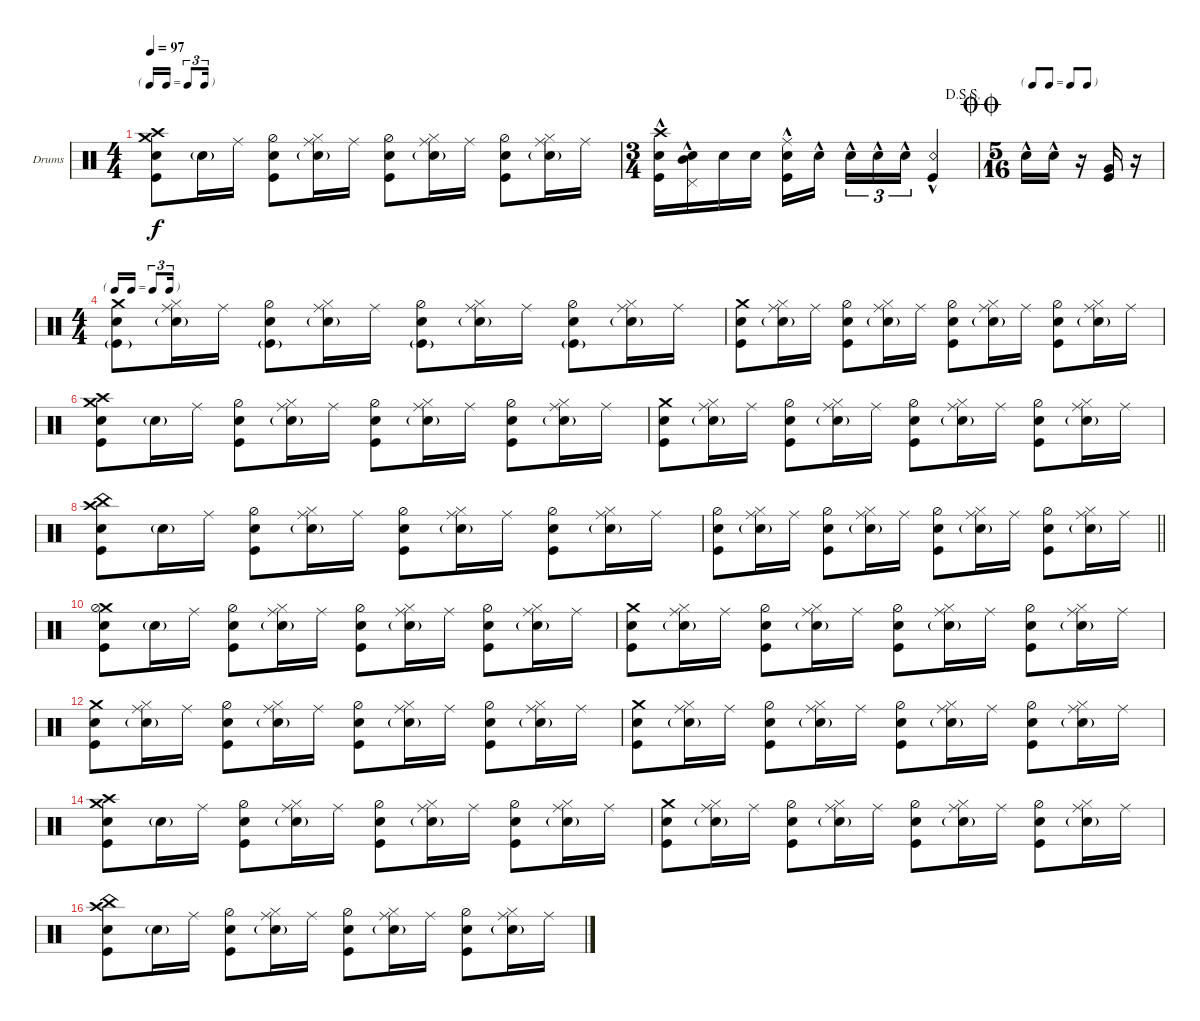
\defaultSystemsLayout 4
\bracketExtendMode nobrackets
\firstSystemTrackNameOrientation horizontal
\otherSystemsTrackNameOrientation horizontal
\defaultBarNumberDisplay FirstOfSystem
\track ("Drums" "Drums") {instrument percussion}
\staff {score}
\articulation defaults
\ts (4 4)
\tf triplet16th
\tempo 97
\clef neutral
\ks c
("Snare (hit) 2" "Kick (hit)" "Crash medium (hit)" "Crash high (hit)").8{dy f} "Snare (hit) 2"{g}.16 "Ride (middle)".16 ("Snare (hit) 2" "Kick (hit)" "Hi-Hat (half)").8 ("Hi-Hat (closed)" "Snare (hit) 2"{g} "Ride (middle)").16 "Ride (middle)".16 ("Kick (hit)" "Snare (hit) 2" "Hi-Hat (half)").8 ("Hi-Hat (closed)" "Snare (hit) 2"{g} "Ride (middle)").16 "Ride (middle)".16 ("Snare (hit) 2" "Kick (hit)" "Hi-Hat (half)").8 ("Hi-Hat (closed)" "Snare (hit) 2"{g} "Ride (middle)").16 "Ride (middle)".16 |
\ts (3 4)
\jump dalsegnosegno
("Snare (hit) 2" "Kick (hit)" "Crash high (hit)"{hac}).16 ("Snare (hit) 2"{hac} "Pedal Hi-Hat (hit)" "Mid Tom (hit)").16 "Snare (hit) 2".16 "Snare (hit) 2".16 ("Kick (hit)"{hac} "Snare (hit) 2"{hac} "Ride (middle)").16{beam merge} "Snare (hit) 2"{hac}.16{beam split} "Snare (hit) 2"{hac}.16{tu (3 2)} "Snare (hit) 2"{hac}.16{tu (3 2)} "Snare (hit) 2"{hac}.16{tu (3 2)} ("Snare (rim shot)"{hac} "Kick (hit)"{hac}).4 |
\ts (5 16)
\tf none
\jump doublecoda "Snare (hit) 2"{hac}.16 "Snare (hit) 2"{hac}.16{beam split}
r.16{beam split} ("Kick (hit)" "Very Low Tom (hit)").16{beam merge} r.16 |
\ts (4 4)
\tf triplet16th
("Snare (hit) 2" "Kick (hit)"{g} "Crash medium (hit)").8 ("Snare (hit) 2"{g} "Ride (middle)" "Hi-Hat (closed)").16 "Ride (middle)".16 ("Snare (hit) 2" "Kick (hit)"{g} "Hi-Hat (half)").8 ("Hi-Hat (closed)" "Ride (middle)" "Snare (hit) 2"{g}).16 "Ride (middle)".16 ("Kick (hit)"{g} "Snare (hit) 2" "Hi-Hat (half)").8 ("Hi-Hat (closed)" "Ride (middle)" "Snare (hit) 2"{g}).16 "Ride (middle)".16 ("Snare (hit) 2" "Kick (hit)"{g} "Hi-Hat (half)").8 ("Hi-Hat (closed)" "Ride (middle)" "Snare (hit) 2"{g}).16 "Ride (middle)".16 |
("Snare (hit) 2" "Kick (hit)" "Crash medium (hit)").8 ("Snare (hit) 2"{g} "Hi-Hat (closed)" "Ride (middle)").16 "Ride (middle)".16 ("Snare (hit) 2" "Kick (hit)" "Hi-Hat (half)").8 ("Hi-Hat (closed)" "Snare (hit) 2"{g} "Ride (middle)").16 "Ride (middle)".16 ("Kick (hit)" "Snare (hit) 2" "Hi-Hat (half)").8 ("Hi-Hat (closed)" "Snare (hit) 2"{g} "Ride (middle)").16 "Ride (middle)".16 ("Snare (hit) 2" "Kick (hit)" "Hi-Hat (half)").8 ("Hi-Hat (closed)" "Snare (hit) 2"{g} "Ride (middle)").16 "Ride (middle)".16 |
("Snare (hit) 2" "Kick (hit)" "Crash medium (hit)" "Crash high (hit)").8 "Snare (hit) 2"{g}.16 "Ride (middle)".16 ("Snare (hit) 2" "Kick (hit)" "Hi-Hat (half)").8 ("Hi-Hat (closed)" "Snare (hit) 2"{g} "Ride (middle)").16 "Ride (middle)".16 ("Kick (hit)" "Snare (hit) 2" "Hi-Hat (half)").8 ("Hi-Hat (closed)" "Snare (hit) 2"{g} "Ride (middle)").16 "Ride (middle)".16 ("Snare (hit) 2" "Kick (hit)" "Hi-Hat (half)").8 ("Hi-Hat (closed)" "Snare (hit) 2"{g} "Ride (middle)").16 "Ride (middle)".16 |
("Snare (hit) 2" "Kick (hit)" "Crash medium (hit)").8 ("Hi-Hat (closed)" "Ride (middle)" "Snare (hit) 2"{g}).16 "Ride (middle)".16 ("Snare (hit) 2" "Kick (hit)" "Hi-Hat (half)").8 ("Hi-Hat (closed)" "Ride (middle)" "Snare (hit) 2"{g}).16 "Ride (middle)".16 ("Kick (hit)" "Snare (hit) 2" "Hi-Hat (half)").8 ("Hi-Hat (closed)" "Ride (middle)" "Snare (hit) 2"{g}).16 "Ride (middle)".16 ("Snare (hit) 2" "Kick (hit)" "Hi-Hat (half)").8 ("Hi-Hat (closed)" "Ride (middle)" "Snare (hit) 2"{g}).16 "Ride (middle)".16 |
("Snare (hit) 2" "Kick (hit)" "Crash high (hit)" "China (hit)").8 "Snare (hit) 2"{g}.16 "Ride (middle)".16 ("Snare (hit) 2" "Kick (hit)" "Hi-Hat (half)").8 ("Hi-Hat (closed)" "Ride (middle)" "Snare (hit) 2"{g}).16 "Ride (middle)".16 ("Kick (hit)" "Snare (hit) 2" "Hi-Hat (half)").8 ("Hi-Hat (closed)" "Ride (middle)" "Snare (hit) 2"{g}).16 "Ride (middle)".16 ("Snare (hit) 2" "Kick (hit)" "Hi-Hat (half)").8 ("Hi-Hat (closed)" "Ride (middle)" "Snare (hit) 2"{g}).16 "Ride (middle)".16 |
\barLineRight lightlight
("Snare (hit) 2" "Kick (hit)" "Hi-Hat (half)").8 ("Hi-Hat (closed)" "Ride (middle)" "Snare (hit) 2"{g}).16 "Ride (middle)".16 ("Snare (hit) 2" "Kick (hit)" "Hi-Hat (half)").8 ("Hi-Hat (closed)" "Ride (middle)" "Snare (hit) 2"{g}).16 "Ride (middle)".16 ("Kick (hit)" "Snare (hit) 2" "Hi-Hat (half)").8 ("Hi-Hat (closed)" "Ride (middle)" "Snare (hit) 2"{g}).16 "Ride (middle)".16 ("Snare (hit) 2" "Kick (hit)" "Hi-Hat (half)").8 ("Hi-Hat (closed)" "Ride (middle)" "Snare (hit) 2"{g}).16 "Ride (middle)".16 |
("Snare (hit) 2" "Kick (hit)" "Crash medium (hit)" "Hi-Hat (half)").8 "Snare (hit) 2"{g}.16 "Ride (middle)".16 ("Snare (hit) 2" "Kick (hit)" "Hi-Hat (half)").8 ("Hi-Hat (closed)" "Ride (middle)" "Snare (hit) 2"{g}).16 "Ride (middle)".16 ("Kick (hit)" "Snare (hit) 2" "Hi-Hat (half)").8 ("Hi-Hat (closed)" "Ride (middle)" "Snare (hit) 2"{g}).16 "Ride (middle)".16 ("Snare (hit) 2" "Kick (hit)" "Hi-Hat (half)").8 ("Hi-Hat (closed)" "Ride (middle)" "Snare (hit) 2"{g}).16 "Ride (middle)".16 |
("Snare (hit) 2" "Kick (hit)" "Crash medium (hit)").8 ("Snare (hit) 2"{g} "Hi-Hat (closed)" "Ride (middle)").16 "Ride (middle)".16 ("Snare (hit) 2" "Kick (hit)" "Hi-Hat (half)").8 ("Hi-Hat (closed)" "Snare (hit) 2"{g} "Ride (middle)").16 "Ride (middle)".16 ("Kick (hit)" "Snare (hit) 2" "Hi-Hat (half)").8 ("Hi-Hat (closed)" "Snare (hit) 2"{g} "Ride (middle)").16 "Ride (middle)".16 ("Snare (hit) 2" "Kick (hit)" "Hi-Hat (half)").8 ("Hi-Hat (closed)" "Snare (hit) 2"{g} "Ride (middle)").16 "Ride (middle)".16 |
("Snare (hit) 2" "Kick (hit)" "Crash medium (hit)").8 ("Snare (hit) 2"{g} "Hi-Hat (closed)" "Ride (middle)").16 "Ride (middle)".16 ("Snare (hit) 2" "Kick (hit)" "Hi-Hat (half)").8 ("Hi-Hat (closed)" "Snare (hit) 2"{g} "Ride (middle)").16 "Ride (middle)".16 ("Kick (hit)" "Snare (hit) 2" "Hi-Hat (half)").8 ("Hi-Hat (closed)" "Snare (hit) 2"{g} "Ride (middle)").16 "Ride (middle)".16 ("Snare (hit) 2" "Kick (hit)" "Hi-Hat (half)").8 ("Hi-Hat (closed)" "Snare (hit) 2"{g} "Ride (middle)").16 "Ride (middle)".16 |
("Snare (hit) 2" "Kick (hit)" "Crash medium (hit)").8 ("Snare (hit) 2"{g} "Hi-Hat (closed)" "Ride (middle)").16 "Ride (middle)".16 ("Snare (hit) 2" "Kick (hit)" "Hi-Hat (half)").8 ("Hi-Hat (closed)" "Snare (hit) 2"{g} "Ride (middle)").16 "Ride (middle)".16 ("Kick (hit)" "Snare (hit) 2" "Hi-Hat (half)").8 ("Hi-Hat (closed)" "Snare (hit) 2"{g} "Ride (middle)").16 "Ride (middle)".16 ("Snare (hit) 2" "Kick (hit)" "Hi-Hat (half)").8 ("Hi-Hat (closed)" "Snare (hit) 2"{g} "Ride (middle)").16 "Ride (middle)".16 |
("Snare (hit) 2" "Kick (hit)" "Crash medium (hit)" "Crash high (hit)").8 "Snare (hit) 2"{g}.16 "Ride (middle)".16 ("Snare (hit) 2" "Kick (hit)" "Hi-Hat (half)").8 ("Hi-Hat (closed)" "Snare (hit) 2"{g} "Ride (middle)").16 "Ride (middle)".16 ("Kick (hit)" "Snare (hit) 2" "Hi-Hat (half)").8 ("Hi-Hat (closed)" "Snare (hit) 2"{g} "Ride (middle)").16 "Ride (middle)".16 ("Snare (hit) 2" "Kick (hit)" "Hi-Hat (half)").8 ("Hi-Hat (closed)" "Snare (hit) 2"{g} "Ride (middle)").16 "Ride (middle)".16 |
("Snare (hit) 2" "Kick (hit)" "Crash medium (hit)").8 ("Snare (hit) 2"{g} "Hi-Hat (closed)" "Ride (middle)").16 "Ride (middle)".16 ("Snare (hit) 2" "Kick (hit)" "Hi-Hat (half)").8 ("Hi-Hat (closed)" "Snare (hit) 2"{g} "Ride (middle)").16 "Ride (middle)".16 ("Kick (hit)" "Snare (hit) 2" "Hi-Hat (half)").8 ("Hi-Hat (closed)" "Snare (hit) 2"{g} "Ride (middle)").16 "Ride (middle)".16 ("Snare (hit) 2" "Kick (hit)" "Hi-Hat (half)").8 ("Hi-Hat (closed)" "Snare (hit) 2"{g} "Ride (middle)").16 "Ride (middle)".16 |
("Snare (hit) 2" "Kick (hit)" "Crash high (hit)" "China (hit)").8 "Snare (hit) 2"{g}.16 "Ride (middle)".16 ("Snare (hit) 2" "Kick (hit)" "Hi-Hat (half)").8 ("Hi-Hat (closed)" "Snare (hit) 2"{g} "Ride (middle)").16 "Ride (middle)".16 ("Kick (hit)" "Snare (hit) 2" "Hi-Hat (half)").8 ("Hi-Hat (closed)" "Snare (hit) 2"{g} "Ride (middle)").16 "Ride (middle)".16 ("Snare (hit) 2" "Kick (hit)" "Hi-Hat (half)").8 ("Hi-Hat (closed)" "Snare (hit) 2"{g} "Ride (middle)").16 "Ride (middle)".16
